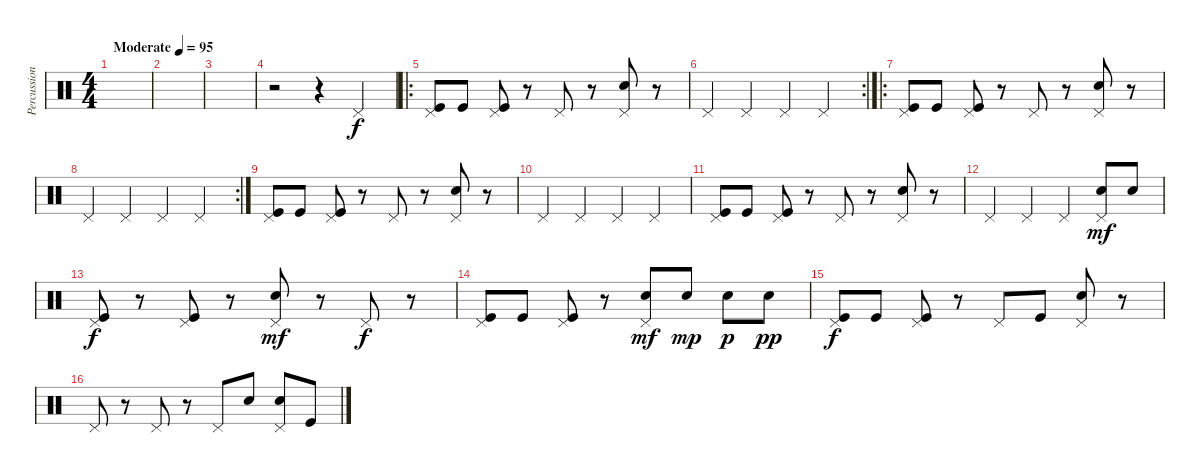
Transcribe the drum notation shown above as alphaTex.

\track ("Percussion" "Percussion") {instrument percussion}
\staff {score}
\articulation defaults
\ts (4 4)
\tempo (95 "Moderate")
\clef neutral
\ks c
|
|
|
r.2 r.4 "Pedal Hi-Hat (hit)".4 |
\ro
("Pedal Hi-Hat (hit)" "Kick (hit)").8 "Kick (hit)".8 ("Pedal Hi-Hat (hit)" "Kick (hit)").8 r.8 "Pedal Hi-Hat (hit)".8 r.8 ("Pedal Hi-Hat (hit)" "Electric Snare (hit)").8 r.8 |
\rc 2 "Pedal Hi-Hat (hit)".4 "Pedal Hi-Hat (hit)".4 "Pedal Hi-Hat (hit)".4 "Pedal Hi-Hat (hit)".4
|
\ro
("Pedal Hi-Hat (hit)" "Kick (hit)").8 "Kick (hit)".8 ("Pedal Hi-Hat (hit)" "Kick (hit)").8 r.8 "Pedal Hi-Hat (hit)".8 r.8 ("Pedal Hi-Hat (hit)" "Electric Snare (hit)").8 r.8 |
\rc 2 "Pedal Hi-Hat (hit)".4 "Pedal Hi-Hat (hit)".4 "Pedal Hi-Hat (hit)".4 "Pedal Hi-Hat (hit)".4
|
("Pedal Hi-Hat (hit)" "Kick (hit)").8 "Kick (hit)".8 ("Pedal Hi-Hat (hit)" "Kick (hit)").8 r.8 "Pedal Hi-Hat (hit)".8 r.8 ("Pedal Hi-Hat (hit)" "Electric Snare (hit)").8 r.8 |
"Pedal Hi-Hat (hit)".4 "Pedal Hi-Hat (hit)".4 "Pedal Hi-Hat (hit)".4 "Pedal Hi-Hat (hit)".4 |
("Pedal Hi-Hat (hit)" "Kick (hit)").8 "Kick (hit)".8 ("Pedal Hi-Hat (hit)" "Kick (hit)").8 r.8 "Pedal Hi-Hat (hit)".8 r.8 ("Pedal Hi-Hat (hit)" "Electric Snare (hit)").8 r.8 |
"Pedal Hi-Hat (hit)".4 "Pedal Hi-Hat (hit)".4 "Pedal Hi-Hat (hit)".4 ("Pedal Hi-Hat (hit)" "Electric Snare (hit)").8{dy mf} "Electric Snare (hit)".8 |
("Pedal Hi-Hat (hit)" "Kick (hit)").8{dy f} r.8 ("Pedal Hi-Hat (hit)" "Kick (hit)").8 r.8 ("Pedal Hi-Hat (hit)" "Electric Snare (hit)").8{dy mf} r.8 "Pedal Hi-Hat (hit)".8{dy f} r.8 |
("Pedal Hi-Hat (hit)" "Kick (hit)").8 "Kick (hit)".8 ("Pedal Hi-Hat (hit)" "Kick (hit)").8 r.8 ("Pedal Hi-Hat (hit)" "Electric Snare (hit)").8{dy mf} "Electric Snare (hit)".8{dy mp} "Electric Snare (hit)".8{dy p} "Electric Snare (hit)".8{dy pp} |
("Pedal Hi-Hat (hit)" "Kick (hit)").8{dy f} "Kick (hit)".8 ("Pedal Hi-Hat (hit)" "Kick (hit)").8 r.8 "Pedal Hi-Hat (hit)".8 "Kick (hit)".8 ("Pedal Hi-Hat (hit)" "Electric Snare (hit)").8 r.8 |
"Pedal Hi-Hat (hit)".8 r.8 "Pedal Hi-Hat (hit)".8 r.8 "Pedal Hi-Hat (hit)".8 "Electric Snare (hit)".8 ("Pedal Hi-Hat (hit)" "Electric Snare (hit)").8 "Kick (hit)".8
